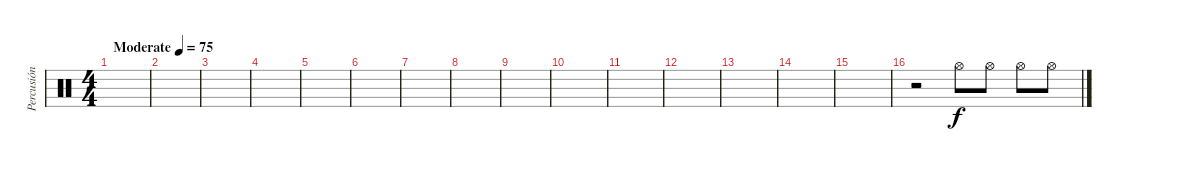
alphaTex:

\track ("Percusión" "Percusión") {instrument percussion}
\staff {score}
\articulation defaults
\ts (4 4)
\tempo (75 "Moderate")
\clef neutral
\ks c
|
|
|
|
|
|
|
|
|
|
|
|
|
|
|
r.2 "Hi-Hat (open)".8 "Hi-Hat (open)".8 "Hi-Hat (open)".8 "Hi-Hat (open)".8
